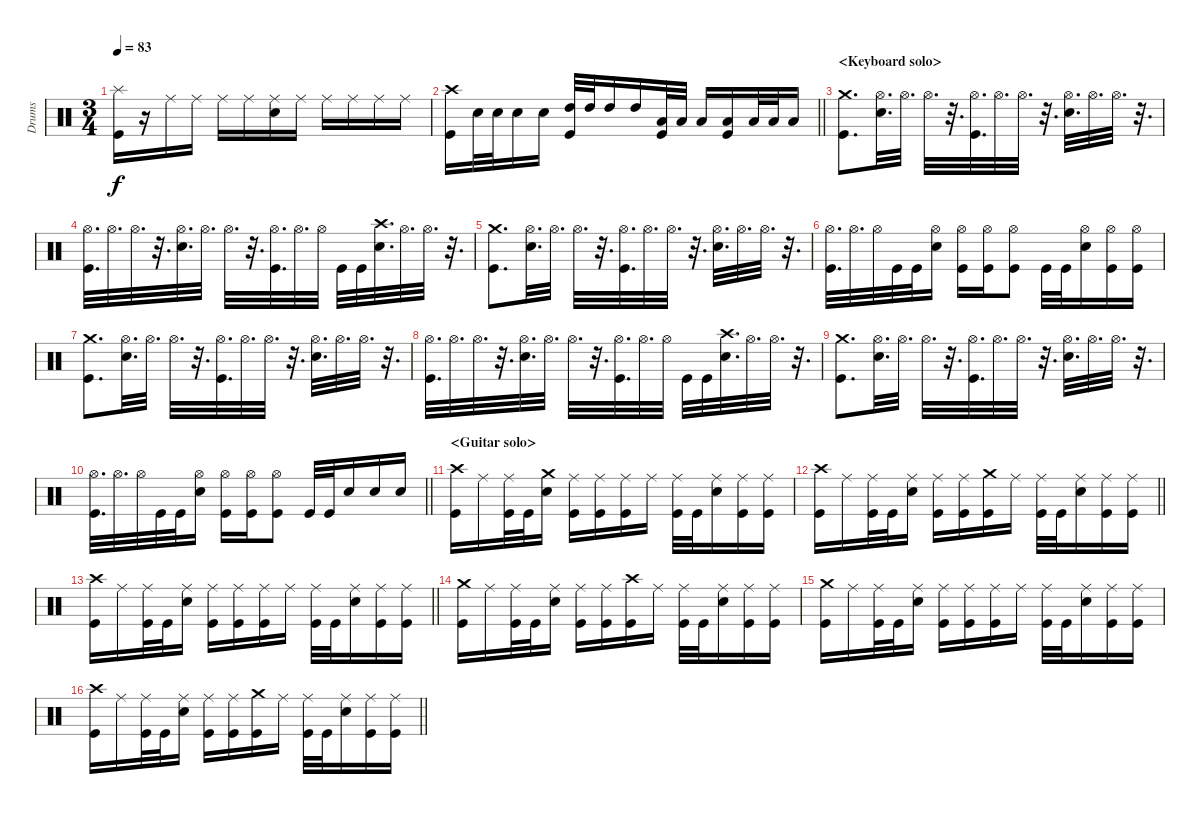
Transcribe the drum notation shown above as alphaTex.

\track ("Drums" "Drums") {instrument percussion}
\staff {score}
\articulation defaults
\ts (3 4)
\tempo 83
\clef neutral
\ks c
("Splash (hit)" "Kick (hit)").16{dy f} r.16 "Ride (middle)".16 "Ride (middle)".16 "Ride (middle)".16 "Ride (middle)".16 ("Ride (middle)" "Snare (hit) 2").16 "Ride (middle)".16 "Ride (middle)".16 "Ride (middle)".16 "Ride (middle)".16 "Ride (middle)".16 |
\barLineRight lightlight
("Crash high (hit)" "Kick (hit)").16 "Snare (hit) 2".32 "Snare (hit) 2".32 "Snare (hit) 2".16 "Snare (hit) 2".16 ("High Tom (hit)" "Kick (hit)").32 "High Tom (hit)".32 "High Tom (hit)".16 "High Tom (hit)".16 ("Low Tom (hit)" "Kick (hit)").32 "Low Tom (hit)".32 "Low Tom (hit)".16 ("Low Tom (hit)" "Kick (hit)").16 "Low Floor Tom (hit)".32 "Low Floor Tom (hit)".32 "Low Floor Tom (hit)".16 |
\section ("" "<Keyboard solo>")
("Crash medium (hit)" "Kick (hit)").8{d} ("Hi-Hat (open)" "Snare (hit) 2").32{d} "Hi-Hat (open)".32{d} "Hi-Hat (open)".32{d} r.32{d} ("Hi-Hat (open)" "Kick (hit)").32{d} "Hi-Hat (open)".32{d} "Hi-Hat (open)".32{d} r.32{d} ("Hi-Hat (open)" "Snare (hit) 2").32{d} "Hi-Hat (open)".32{d} "Hi-Hat (open)".32{d} r.32{d} |
("Hi-Hat (open)" "Kick (hit)").32{d} "Hi-Hat (open)".32{d} "Hi-Hat (open)".32{d} r.32{d} ("Hi-Hat (open)" "Snare (hit) 2").32{d} "Hi-Hat (open)".32{d} "Hi-Hat (open)".32{d} r.32{d} ("Hi-Hat (open)" "Kick (hit)").32{d} "Hi-Hat (open)".32{d} "Hi-Hat (open)".32 "Kick (hit)".32 "Kick (hit)".32 ("Crash high (hit)" "Snare (hit) 2").32{d} "Hi-Hat (open)".32{d} "Hi-Hat (open)".32{d} r.32{d} |
("Crash medium (hit)" "Kick (hit)").8{d} ("Hi-Hat (open)" "Snare (hit) 2").32{d} "Hi-Hat (open)".32{d} "Hi-Hat (open)".32{d} r.32{d} ("Hi-Hat (open)" "Kick (hit)").32{d} "Hi-Hat (open)".32{d} "Hi-Hat (open)".32{d} r.32{d} ("Hi-Hat (open)" "Snare (hit) 2").32{d} "Hi-Hat (open)".32{d} "Hi-Hat (open)".32{d} r.32{d} |
("Hi-Hat (open)" "Kick (hit)").32{d} "Hi-Hat (open)".32{d} "Hi-Hat (open)".32 "Kick (hit)".32 "Kick (hit)".32 ("Hi-Hat (open)" "Snare (hit) 2").16 ("Hi-Hat (open)" "Kick (hit)").16 ("Hi-Hat (open)" "Kick (hit)").16 ("Hi-Hat (open)" "Kick (hit)").8 "Kick (hit)".32 "Kick (hit)".32 ("Hi-Hat (open)" "Snare (hit) 2").16 ("Hi-Hat (open)" "Kick (hit)").16 ("Hi-Hat (open)" "Kick (hit)").16 |
("Crash medium (hit)" "Kick (hit)").8{d} ("Hi-Hat (open)" "Snare (hit) 2").32{d} "Hi-Hat (open)".32{d} "Hi-Hat (open)".32{d} r.32{d} ("Hi-Hat (open)" "Kick (hit)").32{d} "Hi-Hat (open)".32{d} "Hi-Hat (open)".32{d} r.32{d} ("Hi-Hat (open)" "Snare (hit) 2").32{d} "Hi-Hat (open)".32{d} "Hi-Hat (open)".32{d} r.32{d} |
("Hi-Hat (open)" "Kick (hit)").32{d} "Hi-Hat (open)".32{d} "Hi-Hat (open)".32{d} r.32{d} ("Hi-Hat (open)" "Snare (hit) 2").32{d} "Hi-Hat (open)".32{d} "Hi-Hat (open)".32{d} r.32{d} ("Hi-Hat (open)" "Kick (hit)").32{d} "Hi-Hat (open)".32{d} "Hi-Hat (open)".32 "Kick (hit)".32 "Kick (hit)".32 ("Crash high (hit)" "Snare (hit) 2").32{d} "Hi-Hat (open)".32{d} "Hi-Hat (open)".32{d} r.32{d} |
("Crash medium (hit)" "Kick (hit)").8{d} ("Hi-Hat (open)" "Snare (hit) 2").32{d} "Hi-Hat (open)".32{d} "Hi-Hat (open)".32{d} r.32{d} ("Hi-Hat (open)" "Kick (hit)").32{d} "Hi-Hat (open)".32{d} "Hi-Hat (open)".32{d} r.32{d} ("Hi-Hat (open)" "Snare (hit) 2").32{d} "Hi-Hat (open)".32{d} "Hi-Hat (open)".32{d} r.32{d} |
\barLineRight lightlight
("Hi-Hat (open)" "Kick (hit)").32{d} "Hi-Hat (open)".32{d} "Hi-Hat (open)".32 "Kick (hit)".32 "Kick (hit)".32 ("Hi-Hat (open)" "Snare (hit) 2").16 ("Hi-Hat (open)" "Kick (hit)").16 ("Hi-Hat (open)" "Kick (hit)").16 ("Hi-Hat (open)" "Kick (hit)").8 "Kick (hit)".32 "Kick (hit)".32 "Snare (hit) 2".16 "Snare (hit) 2".16 "Snare (hit) 2".16 |
\section ("" "<Guitar solo>")
("Crash high (hit)" "Kick (hit)").16 "Ride (middle)".16 ("Ride (middle)" "Kick (hit)").32 "Kick (hit)".32 ("Crash medium (hit)" "Snare (hit) 2").16 ("Ride (middle)" "Kick (hit)").16 ("Ride (middle)" "Kick (hit)").16 ("Ride (middle)" "Kick (hit)").16 "Ride (middle)".16 ("Ride (middle)" "Kick (hit)").32 "Kick (hit)".32 ("Ride (middle)" "Snare (hit) 2").16 ("Ride (middle)" "Kick (hit)").16 ("Ride (middle)" "Kick (hit)").16 |
\barLineRight lightlight
("Crash high (hit)" "Kick (hit)").16 "Ride (middle)".16 ("Ride (middle)" "Kick (hit)").32 "Kick (hit)".32 ("Ride (middle)" "Snare (hit) 2").16 ("Ride (middle)" "Kick (hit)").16 ("Ride (middle)" "Kick (hit)").16 ("Crash medium (hit)" "Kick (hit)").16 "Ride (middle)".16 ("Ride (middle)" "Kick (hit)").32 "Kick (hit)".32 ("Ride (middle)" "Snare (hit) 2").16 ("Ride (middle)" "Kick (hit)").16 ("Ride (middle)" "Kick (hit)").16 |
\barLineRight lightlight
("Crash high (hit)" "Kick (hit)").16 "Ride (middle)".16 ("Ride (middle)" "Kick (hit)").32 "Kick (hit)".32 ("Ride (middle)" "Snare (hit) 2").16 ("Ride (middle)" "Kick (hit)").16 ("Ride (middle)" "Kick (hit)").16 ("Ride (middle)" "Kick (hit)").16 "Ride (middle)".16 ("Ride (middle)" "Kick (hit)").32 "Kick (hit)".32 ("Ride (middle)" "Snare (hit) 2").16 ("Ride (middle)" "Kick (hit)").16 ("Ride (middle)" "Kick (hit)").16 |
("Crash medium (hit)" "Kick (hit)").16 "Ride (middle)".16 ("Ride (middle)" "Kick (hit)").32 "Kick (hit)".32 ("Ride (middle)" "Snare (hit) 2").16 ("Ride (middle)" "Kick (hit)").16 ("Ride (middle)" "Kick (hit)").16 ("Crash high (hit)" "Kick (hit)").16 "Ride (middle)".16 ("Ride (middle)" "Kick (hit)").32 "Kick (hit)".32 ("Ride (middle)" "Snare (hit) 2").16 ("Ride (middle)" "Kick (hit)").16 ("Ride (middle)" "Kick (hit)").16 |
("Crash medium (hit)" "Kick (hit)").16 "Ride (middle)".16 ("Ride (middle)" "Kick (hit)").32 "Kick (hit)".32 ("Ride (middle)" "Snare (hit) 2").16 ("Ride (middle)" "Kick (hit)").16 ("Ride (middle)" "Kick (hit)").16 ("Ride (middle)" "Kick (hit)").16 "Ride (middle)".16 ("Ride (middle)" "Kick (hit)").32 "Kick (hit)".32 ("Ride (middle)" "Snare (hit) 2").16 ("Ride (middle)" "Kick (hit)").16 ("Ride (middle)" "Kick (hit)").16 |
\barLineRight lightlight
("Crash high (hit)" "Kick (hit)").16 "Ride (middle)".16 ("Ride (middle)" "Kick (hit)").32 "Kick (hit)".32 ("Ride (middle)" "Snare (hit) 2").16 ("Ride (middle)" "Kick (hit)").16 ("Ride (middle)" "Kick (hit)").16 ("Crash medium (hit)" "Kick (hit)").16 "Ride (middle)".16 ("Ride (middle)" "Kick (hit)").32 "Kick (hit)".32 ("Ride (middle)" "Snare (hit) 2").16 ("Ride (middle)" "Kick (hit)").16 ("Ride (middle)" "Kick (hit)").16
